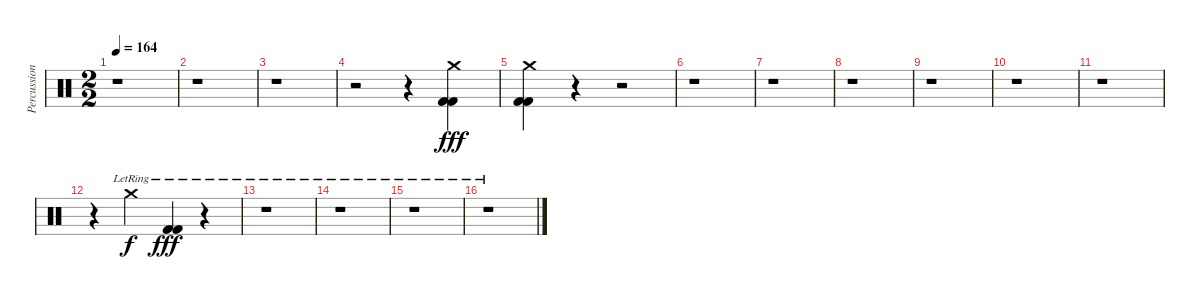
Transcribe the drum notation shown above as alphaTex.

\track ("Percussion" "Percussion") {instrument percussion}
\staff {score}
\articulation defaults
\ts (2 2)
\tempo 164
\clef neutral
\ks c
r.1{dy f} |
r.1 |
r.1 |
r.2 r.4 ("Crash medium (hit)" "Kick (hit) 2" "Kick (hit) 2").4{dy fff} |
("Crash medium (hit)" "Kick (hit) 2" "Kick (hit) 2").4 r.4 r.2 |
r.1 |
r.1 |
r.1 |
r.1 |
r.1 |
r.1 |
r.4 "Crash medium (hit)"{lr}.4{dy f} ("Kick (hit) 2"{lr} "Kick (hit) 2"{lr}).4{dy fff} r.4 |
r.1 |
r.1 |
r.1 |
r.1
